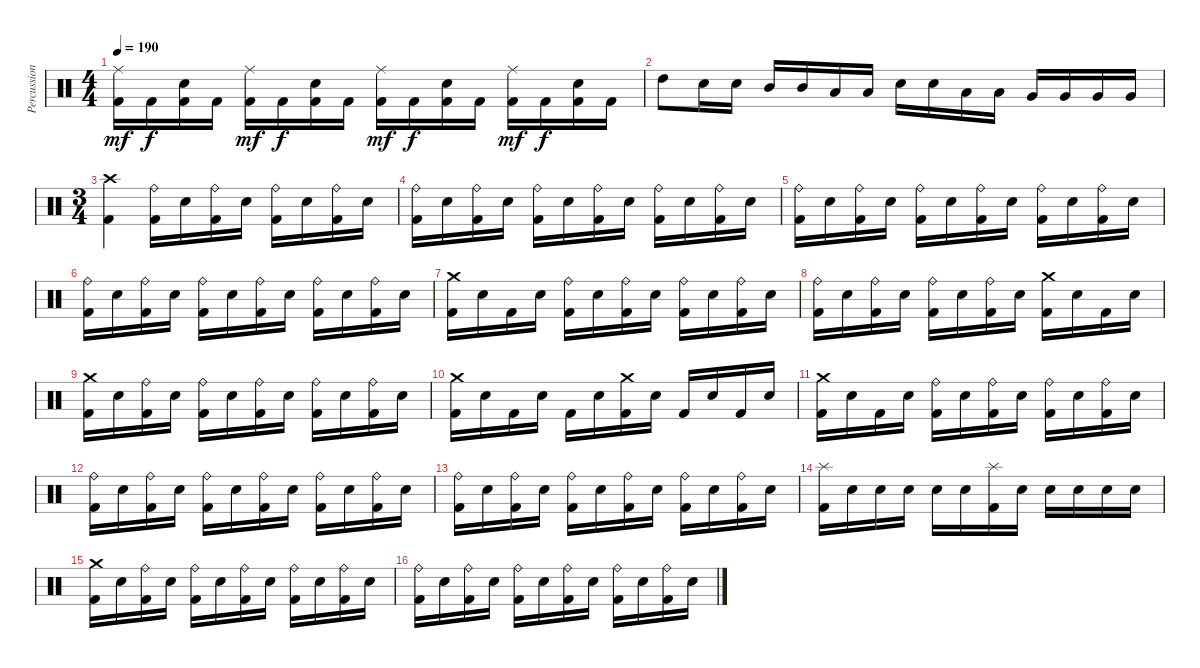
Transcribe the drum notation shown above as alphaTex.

\track ("Percussion" "Percussion") {instrument percussion}
\staff {score}
\articulation defaults
\ts (4 4)
\tempo 190
\clef neutral
\ks c
("Ride (middle)" "Kick (hit) 2").16{dy mf} "Kick (hit) 2".16{dy f} ("Electric Snare (hit)" "Kick (hit) 2").16 "Kick (hit) 2".16 ("Ride (middle)" "Kick (hit) 2").16{dy mf} "Kick (hit) 2".16{dy f} ("Electric Snare (hit)" "Kick (hit) 2").16 "Kick (hit) 2".16 ("Ride (middle)" "Kick (hit) 2").16{dy mf} "Kick (hit) 2".16{dy f} ("Electric Snare (hit)" "Kick (hit) 2").16 "Kick (hit) 2".16 ("Ride (middle)" "Kick (hit) 2").16{dy mf} "Kick (hit) 2".16{dy f} ("Electric Snare (hit)" "Kick (hit) 2").16 "Kick (hit) 2".16 |
"High Tom (hit)".8 "Electric Snare (hit)".16 "Electric Snare (hit)".16 "Mid Tom (hit)".16 "Mid Tom (hit)".16 "Low Tom (hit)".16 "Low Tom (hit)".16 "Electric Snare (hit)".16 "Electric Snare (hit)".16 "Low Tom (hit)".16 "Low Tom (hit)".16 "Very Low Tom (hit)".16 "Very Low Tom (hit)".16 "Very Low Tom (hit)".16 "Very Low Tom (hit)".16 |
\ts (3 4)
("Crash high (hit)" "Kick (hit) 2").4 ("Ride (bell)" "Kick (hit) 2").16 "Electric Snare (hit)".16 ("Ride (bell)" "Kick (hit) 2").16 "Electric Snare (hit)".16 ("Ride (bell)" "Kick (hit) 2").16 "Electric Snare (hit)".16 ("Ride (bell)" "Kick (hit) 2").16 "Electric Snare (hit)".16 |
("Ride (bell)" "Kick (hit) 2").16 "Electric Snare (hit)".16 ("Ride (bell)" "Kick (hit) 2").16 "Electric Snare (hit)".16 ("Ride (bell)" "Kick (hit) 2").16 "Electric Snare (hit)".16 ("Ride (bell)" "Kick (hit) 2").16 "Electric Snare (hit)".16 ("Ride (bell)" "Kick (hit) 2").16 "Electric Snare (hit)".16 ("Ride (bell)" "Kick (hit) 2").16 "Electric Snare (hit)".16 |
("Ride (bell)" "Kick (hit) 2").16 "Electric Snare (hit)".16 ("Ride (bell)" "Kick (hit) 2").16 "Electric Snare (hit)".16 ("Ride (bell)" "Kick (hit) 2").16 "Electric Snare (hit)".16 ("Ride (bell)" "Kick (hit) 2").16 "Electric Snare (hit)".16 ("Ride (bell)" "Kick (hit) 2").16 "Electric Snare (hit)".16 ("Ride (bell)" "Kick (hit) 2").16 "Electric Snare (hit)".16 |
("Ride (bell)" "Kick (hit) 2").16 "Electric Snare (hit)".16 ("Ride (bell)" "Kick (hit) 2").16 "Electric Snare (hit)".16 ("Ride (bell)" "Kick (hit) 2").16 "Electric Snare (hit)".16 ("Ride (bell)" "Kick (hit) 2").16 "Electric Snare (hit)".16 ("Ride (bell)" "Kick (hit) 2").16 "Electric Snare (hit)".16 ("Ride (bell)" "Kick (hit) 2").16 "Electric Snare (hit)".16 |
("Crash medium (hit)" "Kick (hit) 2").16 "Electric Snare (hit)".16 "Kick (hit) 2".16 "Electric Snare (hit)".16 ("Ride (bell)" "Kick (hit) 2").16 "Electric Snare (hit)".16 ("Ride (bell)" "Kick (hit) 2").16 "Electric Snare (hit)".16 ("Ride (bell)" "Kick (hit) 2").16 "Electric Snare (hit)".16 ("Ride (bell)" "Kick (hit) 2").16 "Electric Snare (hit)".16 |
("Ride (bell)" "Kick (hit) 2").16 "Electric Snare (hit)".16 ("Ride (bell)" "Kick (hit) 2").16 "Electric Snare (hit)".16 ("Ride (bell)" "Kick (hit) 2").16 "Electric Snare (hit)".16 ("Ride (bell)" "Kick (hit) 2").16 "Electric Snare (hit)".16 ("Crash medium (hit)" "Kick (hit) 2").16 "Electric Snare (hit)".16 "Kick (hit) 2".16 "Electric Snare (hit)".16 |
("Crash medium (hit)" "Kick (hit) 2").16 "Electric Snare (hit)".16 ("Ride (bell)" "Kick (hit) 2").16 "Electric Snare (hit)".16 ("Ride (bell)" "Kick (hit) 2").16 "Electric Snare (hit)".16 ("Ride (bell)" "Kick (hit) 2").16 "Electric Snare (hit)".16 ("Ride (bell)" "Kick (hit) 2").16 "Electric Snare (hit)".16 ("Ride (bell)" "Kick (hit) 2").16 "Electric Snare (hit)".16 |
("Crash medium (hit)" "Kick (hit) 2").16 "Electric Snare (hit)".16 "Kick (hit) 2".16 "Electric Snare (hit)".16 "Kick (hit) 2".16 "Electric Snare (hit)".16 ("Crash medium (hit)" "Kick (hit) 2").16 "Electric Snare (hit)".16 "Kick (hit) 2".16 "Electric Snare (hit)".16 "Kick (hit) 2".16 "Electric Snare (hit)".16 |
("Crash medium (hit)" "Kick (hit) 2").16 "Electric Snare (hit)".16 "Kick (hit) 2".16 "Electric Snare (hit)".16 ("Ride (bell)" "Kick (hit) 2").16 "Electric Snare (hit)".16 ("Ride (bell)" "Kick (hit) 2").16 "Electric Snare (hit)".16 ("Ride (bell)" "Kick (hit) 2").16 "Electric Snare (hit)".16 ("Ride (bell)" "Kick (hit) 2").16 "Electric Snare (hit)".16 |
("Ride (bell)" "Kick (hit) 2").16 "Electric Snare (hit)".16 ("Ride (bell)" "Kick (hit) 2").16 "Electric Snare (hit)".16 ("Ride (bell)" "Kick (hit) 2").16 "Electric Snare (hit)".16 ("Ride (bell)" "Kick (hit) 2").16 "Electric Snare (hit)".16 ("Ride (bell)" "Kick (hit) 2").16 "Electric Snare (hit)".16 ("Ride (bell)" "Kick (hit) 2").16 "Electric Snare (hit)".16 |
("Ride (bell)" "Kick (hit) 2").16 "Electric Snare (hit)".16 ("Ride (bell)" "Kick (hit) 2").16 "Electric Snare (hit)".16 ("Ride (bell)" "Kick (hit) 2").16 "Electric Snare (hit)".16 ("Ride (bell)" "Kick (hit) 2").16 "Electric Snare (hit)".16 ("Ride (bell)" "Kick (hit) 2").16 "Electric Snare (hit)".16 ("Ride (bell)" "Kick (hit) 2").16 "Electric Snare (hit)".16 |
("Splash (hit)" "Kick (hit) 2").16 "Electric Snare (hit)".16 "Electric Snare (hit)".16 "Electric Snare (hit)".16 "Electric Snare (hit)".16 "Electric Snare (hit)".16 ("Splash (hit)" "Kick (hit) 2").16 "Electric Snare (hit)".16 "Electric Snare (hit)".16 "Electric Snare (hit)".16 "Electric Snare (hit)".16 "Electric Snare (hit)".16 |
("Crash medium (hit)" "Kick (hit) 2").16 "Electric Snare (hit)".16 ("Ride (bell)" "Kick (hit) 2").16 "Electric Snare (hit)".16 ("Ride (bell)" "Kick (hit) 2").16 "Electric Snare (hit)".16 ("Ride (bell)" "Kick (hit) 2").16 "Electric Snare (hit)".16 ("Ride (bell)" "Kick (hit) 2").16 "Electric Snare (hit)".16 ("Ride (bell)" "Kick (hit) 2").16 "Electric Snare (hit)".16 |
("Ride (bell)" "Kick (hit) 2").16 "Electric Snare (hit)".16 ("Ride (bell)" "Kick (hit) 2").16 "Electric Snare (hit)".16 ("Ride (bell)" "Kick (hit) 2").16 "Electric Snare (hit)".16 ("Ride (bell)" "Kick (hit) 2").16 "Electric Snare (hit)".16 ("Ride (bell)" "Kick (hit) 2").16 "Electric Snare (hit)".16 ("Ride (bell)" "Kick (hit) 2").16 "Electric Snare (hit)".16
